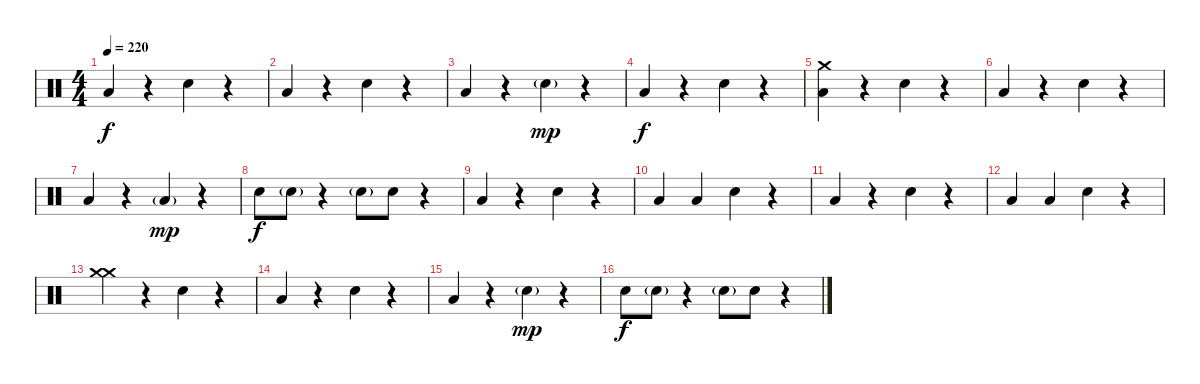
\track "" {instrument percussion}
\staff {score}
\articulation defaults
\ts (4 4)
\tempo 220
\clef neutral
\ks c "Low Tom (hit)".4{dy f}
r.4 "Snare (hit) 2".4 r.4 |
"Low Tom (hit)".4 r.4 "Snare (hit) 2".4 r.4 |
"Low Tom (hit)".4 r.4 "Snare (hit) 2"{g}.4{dy mp} r.4 |
"Low Tom (hit)".4{dy f} r.4 "Snare (hit) 2".4 r.4 |
("Low Tom (hit)" "Crash medium (hit)").4 r.4 "Snare (hit) 2".4 r.4 |
"Low Tom (hit)".4 r.4 "Snare (hit) 2".4 r.4 |
"Low Tom (hit)".4 r.4 "Low Tom (hit)"{g}.4{dy mp} r.4 |
"Snare (hit) 2".8{dy f} "Snare (hit) 2"{g}.8 r.4 "Snare (hit) 2"{g}.8 "Snare (hit) 2".8 r.4 |
"Low Tom (hit)".4 r.4 "Snare (hit) 2".4 r.4 |
"Low Tom (hit)".4 "Low Tom (hit)".4 "Snare (hit) 2".4 r.4 |
"Low Tom (hit)".4 r.4 "Snare (hit) 2".4 r.4 |
"Low Tom (hit)".4 "Low Tom (hit)".4 "Snare (hit) 2".4 r.4 |
("Crash medium (hit)" "Crash medium (hit)").4 r.4 "Snare (hit) 2".4 r.4 |
"Low Tom (hit)".4 r.4 "Snare (hit) 2".4 r.4 |
"Low Tom (hit)".4 r.4 "Snare (hit) 2"{g}.4{dy mp} r.4 |
"Snare (hit) 2".8{dy f} "Snare (hit) 2"{g}.8 r.4 "Snare (hit) 2"{g}.8 "Snare (hit) 2".8 r.4
